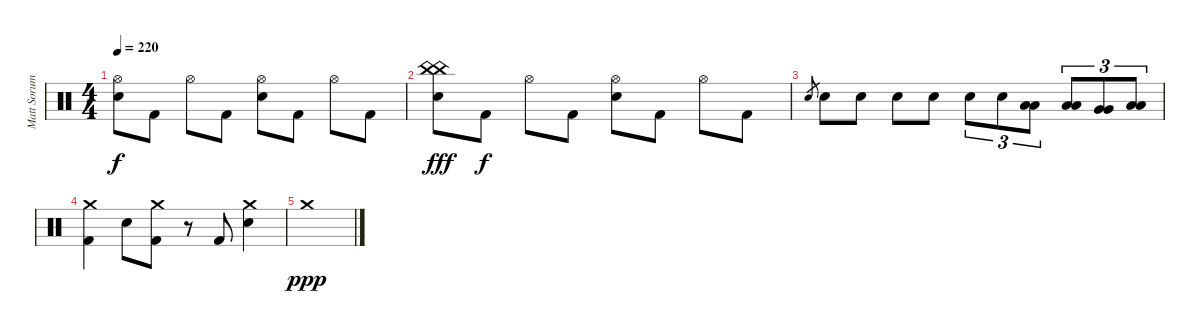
\track ("Matt Sorum - Drums" "Matt Sorum") {instrument percussion}
\staff {score}
\articulation defaults
\ts (4 4)
\tempo 220
\clef neutral
\ks c
("Hi-Hat (open)" "Snare (hit) 2").8{dy f} "Kick (hit) 2".8 "Hi-Hat (open)".8 "Kick (hit) 2".8 ("Hi-Hat (open)" "Snare (hit) 2").8 "Kick (hit) 2".8 "Hi-Hat (open)".8 "Kick (hit) 2".8 |
("China (hit)" "China (hit)" "Snare (hit) 2").8{dy fff} "Kick (hit) 2".8{dy f} "Hi-Hat (open)".8 "Kick (hit) 2".8 ("Hi-Hat (open)" "Snare (hit) 2").8 "Kick (hit) 2".8 "Hi-Hat (open)".8 "Kick (hit) 2".8 |
"Snare (hit) 2".8{gr} "Snare (hit) 2".8 "Snare (hit) 2".8 "Snare (hit) 2".8 "Snare (hit) 2".8 "Snare (hit) 2".8{tu (3 2)} "Snare (hit) 2".8{tu (3 2)} ("Low Tom (hit)" "Low Tom (hit)").8{tu (3 2)} ("Low Tom (hit)" "Low Tom (hit)").8{tu (3 2)} ("Very Low Tom (hit)" "Very Low Tom (hit)").8{tu (3 2)} ("Low Floor Tom (hit)" "Low Floor Tom (hit)").8{tu (3 2)} |
("Crash medium (hit)" "Kick (hit) 2").4 "Snare (hit) 2".8 ("Crash medium (hit)" "Kick (hit) 2").8 r.8 "Kick (hit) 2".8 ("Crash medium (hit)" "Snare (hit) 2").4 |
"Crash medium (hit)".1{dy ppp}
